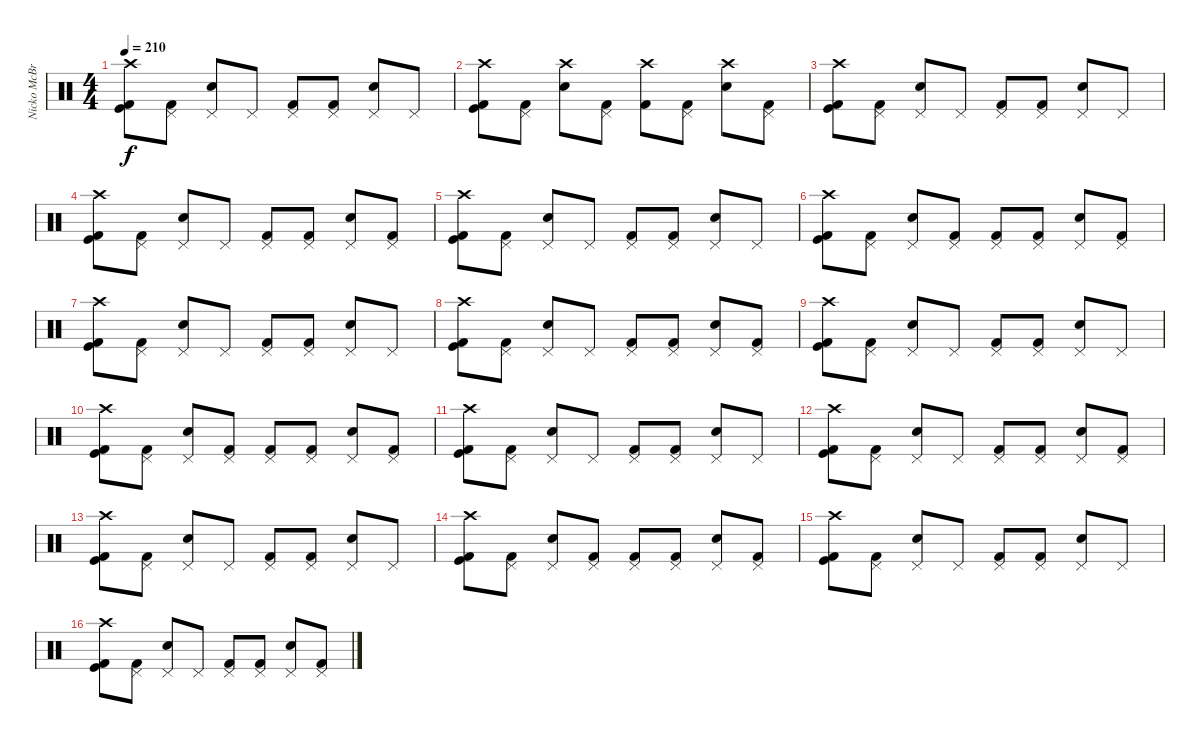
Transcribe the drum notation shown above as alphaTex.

\track ("Nicko McBrain" "Nicko McBr") {instrument percussion}
\staff {score}
\articulation defaults
\ts (4 4)
\tempo 210
\clef neutral
\ks c
("Crash high (hit)" "Kick (hit)" "Kick (hit) 2").8{dy f} ("Pedal Hi-Hat (hit)" "Kick (hit) 2").8 ("Pedal Hi-Hat (hit)" "Snare (hit) 2").8 "Pedal Hi-Hat (hit)".8 ("Pedal Hi-Hat (hit)" "Kick (hit) 2").8 ("Pedal Hi-Hat (hit)" "Kick (hit) 2").8 ("Pedal Hi-Hat (hit)" "Snare (hit) 2").8 "Pedal Hi-Hat (hit)".8 |
("Crash high (hit)" "Kick (hit)" "Kick (hit) 2").8 ("Pedal Hi-Hat (hit)" "Kick (hit) 2").8 ("Crash high (hit)" "Snare (hit) 2").8 ("Pedal Hi-Hat (hit)" "Kick (hit) 2").8 ("Crash high (hit)" "Kick (hit) 2").8 ("Pedal Hi-Hat (hit)" "Kick (hit) 2").8 ("Crash high (hit)" "Snare (hit) 2").8 ("Pedal Hi-Hat (hit)" "Kick (hit) 2").8 |
("Crash high (hit)" "Kick (hit)" "Kick (hit) 2").8 ("Pedal Hi-Hat (hit)" "Kick (hit) 2").8 ("Pedal Hi-Hat (hit)" "Snare (hit) 2").8 "Pedal Hi-Hat (hit)".8 ("Pedal Hi-Hat (hit)" "Kick (hit) 2").8 ("Pedal Hi-Hat (hit)" "Kick (hit) 2").8 ("Pedal Hi-Hat (hit)" "Snare (hit) 2").8 "Pedal Hi-Hat (hit)".8 |
("Crash high (hit)" "Kick (hit)" "Kick (hit) 2").8 ("Pedal Hi-Hat (hit)" "Kick (hit) 2").8 ("Pedal Hi-Hat (hit)" "Snare (hit) 2").8 "Pedal Hi-Hat (hit)".8 ("Pedal Hi-Hat (hit)" "Kick (hit) 2").8 ("Pedal Hi-Hat (hit)" "Kick (hit) 2").8 ("Pedal Hi-Hat (hit)" "Snare (hit) 2").8 ("Pedal Hi-Hat (hit)" "Kick (hit) 2").8 |
("Crash high (hit)" "Kick (hit)" "Kick (hit) 2").8 ("Pedal Hi-Hat (hit)" "Kick (hit) 2").8 ("Pedal Hi-Hat (hit)" "Snare (hit) 2").8 "Pedal Hi-Hat (hit)".8 ("Pedal Hi-Hat (hit)" "Kick (hit) 2").8 ("Pedal Hi-Hat (hit)" "Kick (hit) 2").8 ("Pedal Hi-Hat (hit)" "Snare (hit) 2").8 "Pedal Hi-Hat (hit)".8 |
("Crash high (hit)" "Kick (hit)" "Kick (hit) 2").8 ("Pedal Hi-Hat (hit)" "Kick (hit) 2").8 ("Pedal Hi-Hat (hit)" "Snare (hit) 2").8 ("Pedal Hi-Hat (hit)" "Kick (hit) 2").8 ("Pedal Hi-Hat (hit)" "Kick (hit) 2").8 ("Pedal Hi-Hat (hit)" "Kick (hit) 2").8 ("Pedal Hi-Hat (hit)" "Snare (hit) 2").8 ("Pedal Hi-Hat (hit)" "Kick (hit) 2").8 |
("Crash high (hit)" "Kick (hit)" "Kick (hit) 2").8 ("Pedal Hi-Hat (hit)" "Kick (hit) 2").8 ("Pedal Hi-Hat (hit)" "Snare (hit) 2").8 "Pedal Hi-Hat (hit)".8 ("Pedal Hi-Hat (hit)" "Kick (hit) 2").8 ("Pedal Hi-Hat (hit)" "Kick (hit) 2").8 ("Pedal Hi-Hat (hit)" "Snare (hit) 2").8 "Pedal Hi-Hat (hit)".8 |
("Crash high (hit)" "Kick (hit)" "Kick (hit) 2").8 ("Pedal Hi-Hat (hit)" "Kick (hit) 2").8 ("Pedal Hi-Hat (hit)" "Snare (hit) 2").8 "Pedal Hi-Hat (hit)".8 ("Pedal Hi-Hat (hit)" "Kick (hit) 2").8 ("Pedal Hi-Hat (hit)" "Kick (hit) 2").8 ("Pedal Hi-Hat (hit)" "Snare (hit) 2").8 ("Pedal Hi-Hat (hit)" "Kick (hit) 2").8 |
("Crash high (hit)" "Kick (hit)" "Kick (hit) 2").8 ("Pedal Hi-Hat (hit)" "Kick (hit) 2").8 ("Pedal Hi-Hat (hit)" "Snare (hit) 2").8 "Pedal Hi-Hat (hit)".8 ("Pedal Hi-Hat (hit)" "Kick (hit) 2").8 ("Pedal Hi-Hat (hit)" "Kick (hit) 2").8 ("Pedal Hi-Hat (hit)" "Snare (hit) 2").8 "Pedal Hi-Hat (hit)".8 |
("Crash high (hit)" "Kick (hit)" "Kick (hit) 2").8 ("Pedal Hi-Hat (hit)" "Kick (hit) 2").8 ("Pedal Hi-Hat (hit)" "Snare (hit) 2").8 ("Pedal Hi-Hat (hit)" "Kick (hit) 2").8 ("Pedal Hi-Hat (hit)" "Kick (hit) 2").8 ("Pedal Hi-Hat (hit)" "Kick (hit) 2").8 ("Pedal Hi-Hat (hit)" "Snare (hit) 2").8 ("Pedal Hi-Hat (hit)" "Kick (hit) 2").8 |
("Crash high (hit)" "Kick (hit)" "Kick (hit) 2").8 ("Pedal Hi-Hat (hit)" "Kick (hit) 2").8 ("Pedal Hi-Hat (hit)" "Snare (hit) 2").8 "Pedal Hi-Hat (hit)".8 ("Pedal Hi-Hat (hit)" "Kick (hit) 2").8 ("Pedal Hi-Hat (hit)" "Kick (hit) 2").8 ("Pedal Hi-Hat (hit)" "Snare (hit) 2").8 "Pedal Hi-Hat (hit)".8 |
("Crash high (hit)" "Kick (hit)" "Kick (hit) 2").8 ("Pedal Hi-Hat (hit)" "Kick (hit) 2").8 ("Pedal Hi-Hat (hit)" "Snare (hit) 2").8 "Pedal Hi-Hat (hit)".8 ("Pedal Hi-Hat (hit)" "Kick (hit) 2").8 ("Pedal Hi-Hat (hit)" "Kick (hit) 2").8 ("Pedal Hi-Hat (hit)" "Snare (hit) 2").8 ("Pedal Hi-Hat (hit)" "Kick (hit) 2").8 |
("Crash high (hit)" "Kick (hit)" "Kick (hit) 2").8 ("Pedal Hi-Hat (hit)" "Kick (hit) 2").8 ("Pedal Hi-Hat (hit)" "Snare (hit) 2").8 "Pedal Hi-Hat (hit)".8 ("Pedal Hi-Hat (hit)" "Kick (hit) 2").8 ("Pedal Hi-Hat (hit)" "Kick (hit) 2").8 ("Pedal Hi-Hat (hit)" "Snare (hit) 2").8 "Pedal Hi-Hat (hit)".8 |
("Crash high (hit)" "Kick (hit)" "Kick (hit) 2").8 ("Pedal Hi-Hat (hit)" "Kick (hit) 2").8 ("Pedal Hi-Hat (hit)" "Snare (hit) 2").8 ("Pedal Hi-Hat (hit)" "Kick (hit) 2").8 ("Pedal Hi-Hat (hit)" "Kick (hit) 2").8 ("Pedal Hi-Hat (hit)" "Kick (hit) 2").8 ("Pedal Hi-Hat (hit)" "Snare (hit) 2").8 ("Pedal Hi-Hat (hit)" "Kick (hit) 2").8 |
("Crash high (hit)" "Kick (hit)" "Kick (hit) 2").8 ("Pedal Hi-Hat (hit)" "Kick (hit) 2").8 ("Pedal Hi-Hat (hit)" "Snare (hit) 2").8 "Pedal Hi-Hat (hit)".8 ("Pedal Hi-Hat (hit)" "Kick (hit) 2").8 ("Pedal Hi-Hat (hit)" "Kick (hit) 2").8 ("Pedal Hi-Hat (hit)" "Snare (hit) 2").8 "Pedal Hi-Hat (hit)".8 |
("Crash high (hit)" "Kick (hit)" "Kick (hit) 2").8 ("Pedal Hi-Hat (hit)" "Kick (hit) 2").8 ("Pedal Hi-Hat (hit)" "Snare (hit) 2").8 "Pedal Hi-Hat (hit)".8 ("Pedal Hi-Hat (hit)" "Kick (hit) 2").8 ("Pedal Hi-Hat (hit)" "Kick (hit) 2").8 ("Pedal Hi-Hat (hit)" "Snare (hit) 2").8 ("Pedal Hi-Hat (hit)" "Kick (hit) 2").8
